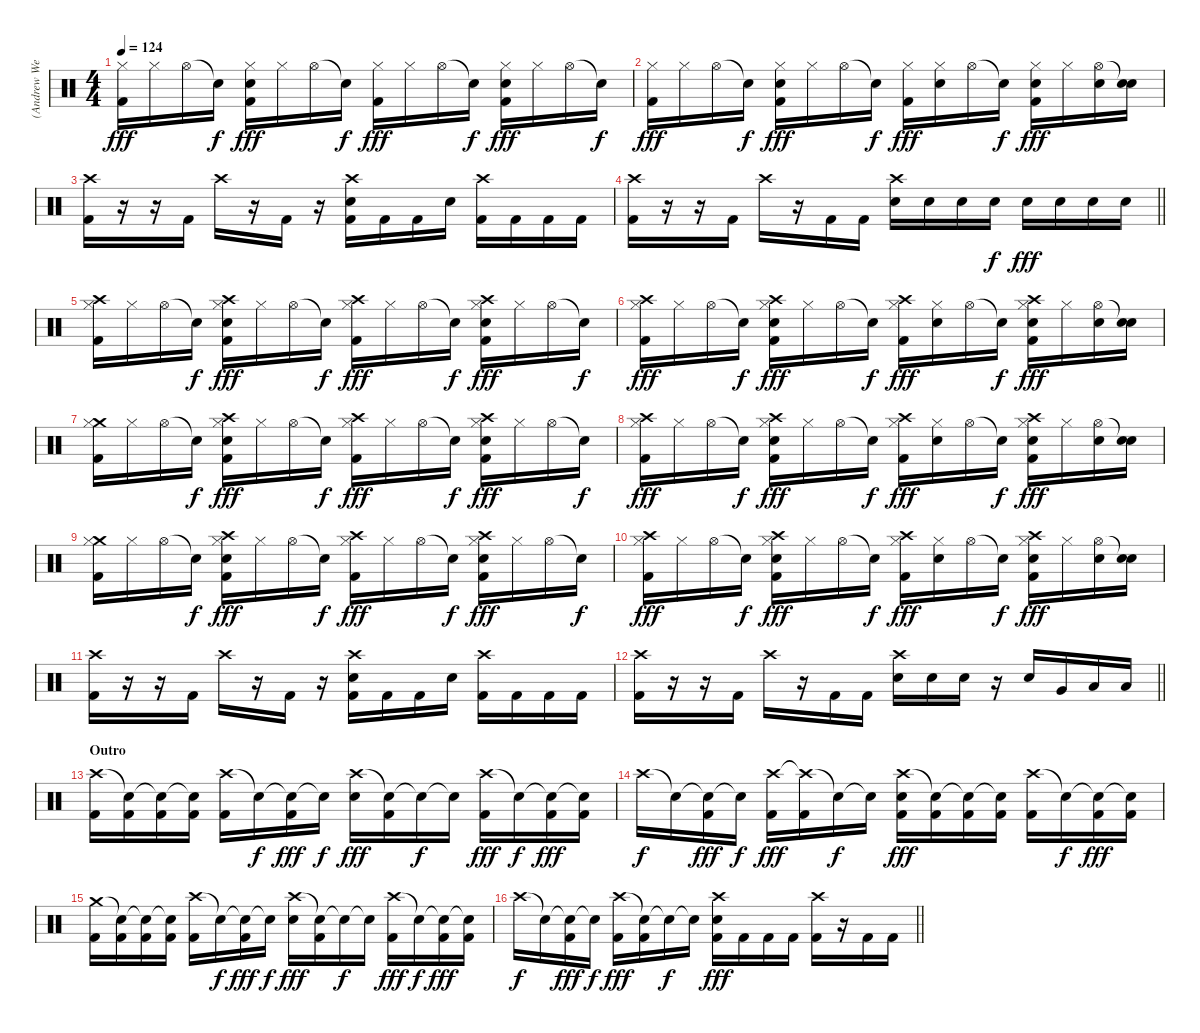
\track ("(Andrew Wetzel) Drums" "(Andrew We") {instrument percussion}
\staff {score}
\articulation defaults
\ts (4 4)
\tempo 124
\clef neutral
\ks c
("Hi-Hat (closed)" "Kick (hit) 2").16{dy fff} "Hi-Hat (closed)".16 "Hi-Hat (open)".16 "Snare (hit)"{t}.16{dy f} ("Hi-Hat (closed)" "Electric Snare (hit)" "Kick (hit) 2").16{dy fff} "Hi-Hat (closed)".16 "Hi-Hat (open)".16 "Snare (hit)"{t}.16{dy f} ("Hi-Hat (closed)" "Kick (hit) 2").16{dy fff} "Hi-Hat (closed)".16 "Hi-Hat (open)".16 "Snare (hit)"{t}.16{dy f} ("Hi-Hat (closed)" "Electric Snare (hit)" "Kick (hit) 2").16{dy fff} "Hi-Hat (closed)".16 "Hi-Hat (open)".16 "Snare (hit)"{t}.16{dy f} |
("Hi-Hat (closed)" "Kick (hit) 2").16{dy fff} "Hi-Hat (closed)".16 "Hi-Hat (open)".16 "Snare (hit)"{t}.16{dy f} ("Hi-Hat (closed)" "Electric Snare (hit)" "Kick (hit) 2").16{dy fff} "Hi-Hat (closed)".16 "Hi-Hat (open)".16 "Snare (hit)"{t}.16{dy f} ("Hi-Hat (closed)" "Kick (hit) 2").16{dy fff} ("Hi-Hat (closed)" "Electric Snare (hit)").16 "Hi-Hat (open)".16 "Snare (hit)"{t}.16{dy f} ("Hi-Hat (closed)" "Electric Snare (hit)" "Kick (hit) 2").16{dy fff} "Hi-Hat (closed)".16 ("Hi-Hat (open)" "Electric Snare (hit)").16 ("Snare (hit)"{t} "Electric Snare (hit)").16 |
("Crash high (hit)" "Kick (hit) 2").16 r.16 r.16 "Kick (hit) 2".16 "Crash high (hit)".16 r.16 "Kick (hit) 2".16 r.16 ("Crash high (hit)" "Electric Snare (hit)" "Kick (hit) 2").16 "Kick (hit) 2".16 "Kick (hit) 2".16 "Electric Snare (hit)".16 ("Crash high (hit)" "Kick (hit) 2").16 "Kick (hit) 2".16 "Kick (hit) 2".16 "Kick (hit) 2".16 |
\barLineRight lightlight
("Crash high (hit)" "Kick (hit) 2").16 r.16 r.16 "Kick (hit) 2".16 "Crash high (hit)".16 r.16 "Kick (hit) 2".16 "Kick (hit) 2".16 ("Crash high (hit)" "Electric Snare (hit)").16 "Electric Snare (hit)".16 "Electric Snare (hit)".16 "Electric Snare (hit)".16{dy f} "Electric Snare (hit)".16{dy fff} "Electric Snare (hit)".16 "Electric Snare (hit)".16 "Electric Snare (hit)".16 |
("Crash high (hit)" "Hi-Hat (closed)" "Kick (hit) 2").16 "Hi-Hat (closed)".16 "Hi-Hat (open)".16 "Snare (hit)"{t}.16{dy f} ("Crash high (hit)" "Hi-Hat (closed)" "Electric Snare (hit)" "Kick (hit) 2").16{dy fff} "Hi-Hat (closed)".16 "Hi-Hat (open)".16 "Snare (hit)"{t}.16{dy f} ("Crash high (hit)" "Hi-Hat (closed)" "Kick (hit) 2").16{dy fff} "Hi-Hat (closed)".16 "Hi-Hat (open)".16 "Snare (hit)"{t}.16{dy f} ("Crash high (hit)" "Hi-Hat (closed)" "Electric Snare (hit)" "Kick (hit) 2").16{dy fff} "Hi-Hat (closed)".16 "Hi-Hat (open)".16 "Snare (hit)"{t}.16{dy f} |
("Crash high (hit)" "Hi-Hat (closed)" "Kick (hit) 2").16{dy fff} "Hi-Hat (closed)".16 "Hi-Hat (open)".16 "Snare (hit)"{t}.16{dy f} ("Crash high (hit)" "Hi-Hat (closed)" "Electric Snare (hit)" "Kick (hit) 2").16{dy fff} "Hi-Hat (closed)".16 "Hi-Hat (open)".16 "Snare (hit)"{t}.16{dy f} ("Crash high (hit)" "Hi-Hat (closed)" "Kick (hit) 2").16{dy fff} ("Hi-Hat (closed)" "Electric Snare (hit)").16 "Hi-Hat (open)".16 "Snare (hit)"{t}.16{dy f} ("Crash high (hit)" "Hi-Hat (closed)" "Electric Snare (hit)" "Kick (hit) 2").16{dy fff} "Hi-Hat (closed)".16 ("Hi-Hat (open)" "Electric Snare (hit)").16 ("Snare (hit)"{t} "Electric Snare (hit)").16 |
("Crash medium (hit)" "Hi-Hat (closed)" "Kick (hit) 2").16 "Hi-Hat (closed)".16 "Hi-Hat (open)".16 "Snare (hit)"{t}.16{dy f} ("Crash high (hit)" "Hi-Hat (closed)" "Electric Snare (hit)" "Kick (hit) 2").16{dy fff} "Hi-Hat (closed)".16 "Hi-Hat (open)".16 "Snare (hit)"{t}.16{dy f} ("Crash high (hit)" "Hi-Hat (closed)" "Kick (hit) 2").16{dy fff} "Hi-Hat (closed)".16 "Hi-Hat (open)".16 "Snare (hit)"{t}.16{dy f} ("Crash high (hit)" "Hi-Hat (closed)" "Electric Snare (hit)" "Kick (hit) 2").16{dy fff} "Hi-Hat (closed)".16 "Hi-Hat (open)".16 "Snare (hit)"{t}.16{dy f} |
("Crash high (hit)" "Hi-Hat (closed)" "Kick (hit) 2").16{dy fff} "Hi-Hat (closed)".16 "Hi-Hat (open)".16 "Snare (hit)"{t}.16{dy f} ("Crash high (hit)" "Hi-Hat (closed)" "Electric Snare (hit)" "Kick (hit) 2").16{dy fff} "Hi-Hat (closed)".16 "Hi-Hat (open)".16 "Snare (hit)"{t}.16{dy f} ("Crash high (hit)" "Hi-Hat (closed)" "Kick (hit) 2").16{dy fff} ("Hi-Hat (closed)" "Electric Snare (hit)").16 "Hi-Hat (open)".16 "Snare (hit)"{t}.16{dy f} ("Crash high (hit)" "Hi-Hat (closed)" "Electric Snare (hit)" "Kick (hit) 2").16{dy fff} "Hi-Hat (closed)".16 ("Hi-Hat (open)" "Electric Snare (hit)").16 ("Snare (hit)"{t} "Electric Snare (hit)").16 |
("Crash medium (hit)" "Hi-Hat (closed)" "Kick (hit) 2").16 "Hi-Hat (closed)".16 "Hi-Hat (open)".16 "Snare (hit)"{t}.16{dy f} ("Crash high (hit)" "Hi-Hat (closed)" "Electric Snare (hit)" "Kick (hit) 2").16{dy fff} "Hi-Hat (closed)".16 "Hi-Hat (open)".16 "Snare (hit)"{t}.16{dy f} ("Crash high (hit)" "Hi-Hat (closed)" "Kick (hit) 2").16{dy fff} "Hi-Hat (closed)".16 "Hi-Hat (open)".16 "Snare (hit)"{t}.16{dy f} ("Crash high (hit)" "Hi-Hat (closed)" "Electric Snare (hit)" "Kick (hit) 2").16{dy fff} "Hi-Hat (closed)".16 "Hi-Hat (open)".16 "Snare (hit)"{t}.16{dy f} |
("Crash high (hit)" "Hi-Hat (closed)" "Kick (hit) 2").16{dy fff} "Hi-Hat (closed)".16 "Hi-Hat (open)".16 "Snare (hit)"{t}.16{dy f} ("Crash high (hit)" "Hi-Hat (closed)" "Electric Snare (hit)" "Kick (hit) 2").16{dy fff} "Hi-Hat (closed)".16 "Hi-Hat (open)".16 "Snare (hit)"{t}.16{dy f} ("Crash high (hit)" "Hi-Hat (closed)" "Kick (hit) 2").16{dy fff} ("Hi-Hat (closed)" "Electric Snare (hit)").16 "Hi-Hat (open)".16 "Snare (hit)"{t}.16{dy f} ("Crash high (hit)" "Hi-Hat (closed)" "Electric Snare (hit)" "Kick (hit) 2").16{dy fff} "Hi-Hat (closed)".16 ("Hi-Hat (open)" "Electric Snare (hit)").16 ("Snare (hit)"{t} "Electric Snare (hit)").16 |
("Crash high (hit)" "Kick (hit) 2").16 r.16 r.16 "Kick (hit) 2".16 "Crash high (hit)".16 r.16 "Kick (hit) 2".16 r.16 ("Crash high (hit)" "Electric Snare (hit)" "Kick (hit) 2").16 "Kick (hit) 2".16 "Kick (hit) 2".16 "Electric Snare (hit)".16 ("Crash high (hit)" "Kick (hit) 2").16 "Kick (hit) 2".16 "Kick (hit) 2".16 "Kick (hit) 2".16 |
\barLineRight lightlight
("Crash high (hit)" "Kick (hit) 2").16 r.16 r.16 "Kick (hit) 2".16 "Crash high (hit)".16 r.16 "Kick (hit) 2".16 "Kick (hit) 2".16 ("Crash high (hit)" "Electric Snare (hit)").16 "Electric Snare (hit)".16 "Electric Snare (hit)".16 r.16 "Electric Snare (hit)".16 "Very Low Tom (hit)".16 "Low Floor Tom (hit)".16 "Low Floor Tom (hit)".16 |
\section ("" "Outro")
("Crash high (hit)" "Kick (hit) 2").16 ("Snare (hit)"{t} "Kick (hit) 2").16 ("Snare (hit)"{t} "Kick (hit) 2").16 ("Snare (hit)"{t} "Kick (hit) 2").16 ("Crash high (hit)" "Kick (hit) 2").16 "Snare (hit)"{t}.16{dy f} ("Snare (hit)"{t} "Kick (hit) 2").16{dy fff} "Snare (hit)"{t}.16{dy f} ("Crash high (hit)" "Electric Snare (hit)").16{dy fff} ("Snare (hit)"{t} "Kick (hit) 2").16 "Snare (hit)"{t}.16{dy f} "Snare (hit)"{t}.16 ("Crash high (hit)" "Kick (hit) 2").16{dy fff} "Snare (hit)"{t}.16{dy f} ("Snare (hit)"{t} "Kick (hit) 2").16{dy fff} ("Snare (hit)"{t} "Kick (hit) 2").16 |
"Crash high (hit)".16{dy f} "Snare (hit)"{t}.16 ("Snare (hit)"{t} "Kick (hit) 2").16{dy fff} "Snare (hit)"{t}.16{dy f} ("Crash high (hit)" "Kick (hit) 2").16{dy fff} ("Crash high (hit)"{t} "Kick (hit) 2").16 "Snare (hit)"{t}.16{dy f} "Snare (hit)"{t}.16 ("Crash high (hit)" "Electric Snare (hit)" "Kick (hit) 2").16{dy fff} ("Snare (hit)"{t} "Kick (hit) 2").16 ("Snare (hit)"{t} "Kick (hit) 2").16 ("Snare (hit)"{t} "Kick (hit) 2").16 ("Crash high (hit)" "Kick (hit) 2").16 "Snare (hit)"{t}.16{dy f} ("Snare (hit)"{t} "Kick (hit) 2").16{dy fff} ("Snare (hit)"{t} "Kick (hit) 2").16 |
("Crash medium (hit)" "Kick (hit) 2").16 ("Snare (hit)"{t} "Kick (hit) 2").16 ("Snare (hit)"{t} "Kick (hit) 2").16 ("Snare (hit)"{t} "Kick (hit) 2").16 ("Crash high (hit)" "Kick (hit) 2").16 "Snare (hit)"{t}.16{dy f} ("Snare (hit)"{t} "Kick (hit) 2").16{dy fff} "Snare (hit)"{t}.16{dy f} ("Crash high (hit)" "Electric Snare (hit)").16{dy fff} ("Snare (hit)"{t} "Kick (hit) 2").16 "Snare (hit)"{t}.16{dy f} "Snare (hit)"{t}.16 ("Crash high (hit)" "Kick (hit) 2").16{dy fff} "Snare (hit)"{t}.16{dy f} ("Snare (hit)"{t} "Kick (hit) 2").16{dy fff} ("Snare (hit)"{t} "Kick (hit) 2").16 |
\barLineRight lightlight "Crash high (hit)".16{dy f} "Snare (hit)"{t}.16
("Snare (hit)"{t} "Kick (hit) 2").16{dy fff} "Snare (hit)"{t}.16{dy f} ("Crash high (hit)" "Kick (hit) 2").16{dy fff} ("Snare (hit)"{t} "Kick (hit) 2").16 "Snare (hit)"{t}.16{dy f} "Snare (hit)"{t}.16 ("Crash high (hit)" "Electric Snare (hit)" "Kick (hit) 2").16{dy fff} "Kick (hit) 2".16 "Kick (hit) 2".16 "Kick (hit) 2".16 ("Crash high (hit)" "Kick (hit) 2").16 r.16 "Kick (hit) 2".16 "Kick (hit) 2".16
